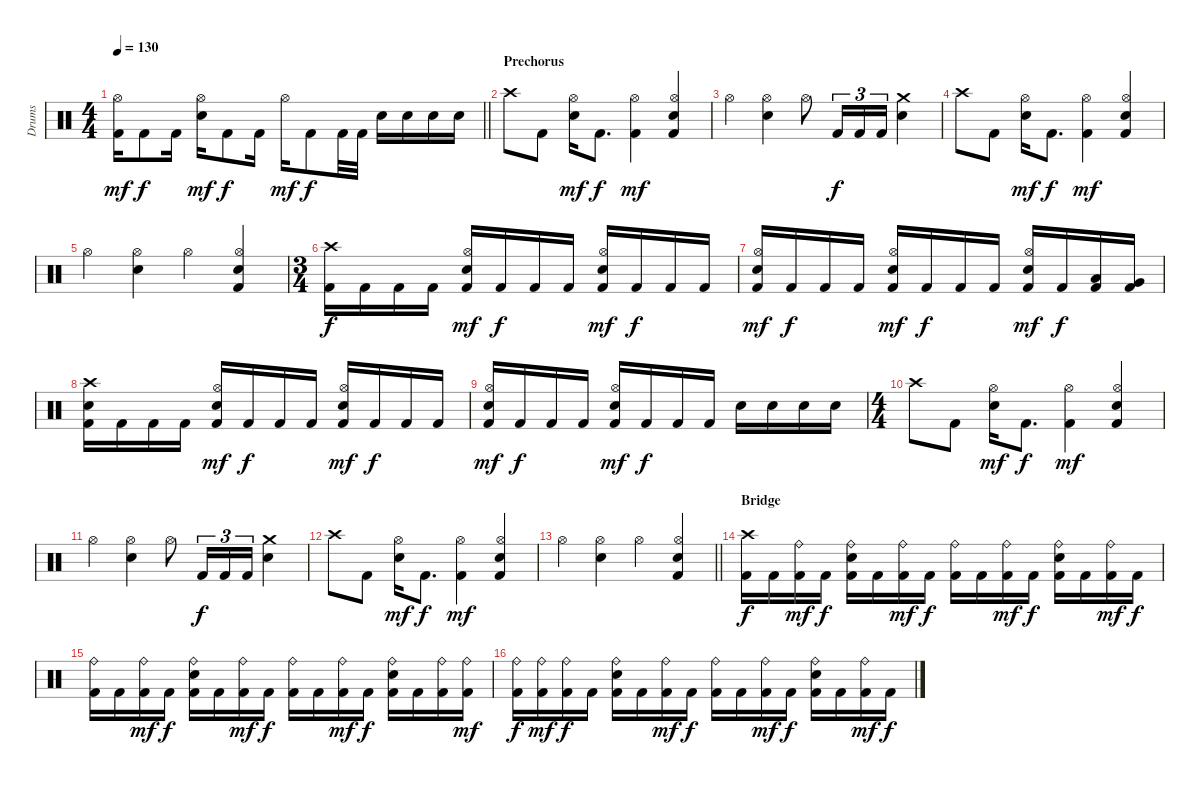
\track ("Drums" "Drums") {instrument percussion}
\staff {score}
\articulation defaults
\ts (4 4)
\tempo 130
\clef neutral
\barLineRight lightlight
\ks c
("Kick (hit) 2" "Hi-Hat (open)").16{dy mf} "Kick (hit) 2".8{dy f} "Kick (hit) 2".16 ("Hi-Hat (open)" "Electric Snare (hit)").16{dy mf} "Kick (hit) 2".8{dy f} "Kick (hit) 2".16 "Hi-Hat (open)".16{dy mf} "Kick (hit) 2".8{dy f} "Kick (hit) 2".32 "Kick (hit) 2".32 "Electric Snare (hit)".16 "Electric Snare (hit)".16 "Electric Snare (hit)".16 "Electric Snare (hit)".16 |
\section ("" "Prechorus")
"Crash high (hit)".8 "Kick (hit) 2".8 ("Hi-Hat (open)" "Electric Snare (hit)").16{dy mf} "Kick (hit) 2".8{d dy f} ("Kick (hit) 2" "Hi-Hat (open)").4{dy mf} ("Kick (hit) 2" "Hi-Hat (open)" "Electric Snare (hit)").4 |
"Hi-Hat (open)".4 ("Hi-Hat (open)" "Electric Snare (hit)").4 "Hi-Hat (open)".8 "Kick (hit) 2".16{tu (3 2) dy f} "Kick (hit) 2".16{tu (3 2)} "Kick (hit) 2".16{tu (3 2)} ("Crash medium (hit)" "Electric Snare (hit)").4 |
"Crash high (hit)".8 "Kick (hit) 2".8 ("Hi-Hat (open)" "Electric Snare (hit)").16{dy mf} "Kick (hit) 2".8{d dy f} ("Kick (hit) 2" "Hi-Hat (open)").4{dy mf} ("Kick (hit) 2" "Hi-Hat (open)" "Electric Snare (hit)").4 |
"Hi-Hat (open)".4 ("Hi-Hat (open)" "Electric Snare (hit)").4 "Hi-Hat (open)".4 ("Kick (hit) 2" "Hi-Hat (open)" "Electric Snare (hit)").4 |
\ts (3 4)
("Kick (hit) 2" "Crash high (hit)").16{dy f} "Kick (hit) 2".16 "Kick (hit) 2".16 "Kick (hit) 2".16 ("Kick (hit) 2" "Hi-Hat (open)" "Electric Snare (hit)").16{dy mf} "Kick (hit) 2".16{dy f} "Kick (hit) 2".16 "Kick (hit) 2".16 ("Kick (hit) 2" "Hi-Hat (open)" "Electric Snare (hit)").16{dy mf} "Kick (hit) 2".16{dy f} "Kick (hit) 2".16 "Kick (hit) 2".16 |
("Kick (hit) 2" "Hi-Hat (open)" "Electric Snare (hit)").16{dy mf} "Kick (hit) 2".16{dy f} "Kick (hit) 2".16 "Kick (hit) 2".16 ("Kick (hit) 2" "Hi-Hat (open)" "Electric Snare (hit)").16{dy mf} "Kick (hit) 2".16{dy f} "Kick (hit) 2".16 "Kick (hit) 2".16 ("Kick (hit) 2" "Hi-Hat (open)" "Electric Snare (hit)").16{dy mf} "Kick (hit) 2".16{dy f} ("Kick (hit) 2" "Low Tom (hit)").16 ("Kick (hit) 2" "Very Low Tom (hit)").16 |
("Kick (hit) 2" "Crash high (hit)" "Electric Snare (hit)").16 "Kick (hit) 2".16 "Kick (hit) 2".16 "Kick (hit) 2".16 ("Kick (hit) 2" "Hi-Hat (open)" "Electric Snare (hit)").16{dy mf} "Kick (hit) 2".16{dy f} "Kick (hit) 2".16 "Kick (hit) 2".16 ("Kick (hit) 2" "Hi-Hat (open)" "Electric Snare (hit)").16{dy mf} "Kick (hit) 2".16{dy f} "Kick (hit) 2".16 "Kick (hit) 2".16 |
("Kick (hit) 2" "Hi-Hat (open)" "Electric Snare (hit)").16{dy mf} "Kick (hit) 2".16{dy f} "Kick (hit) 2".16 "Kick (hit) 2".16 ("Kick (hit) 2" "Hi-Hat (open)" "Electric Snare (hit)").16{dy mf} "Kick (hit) 2".16{dy f} "Kick (hit) 2".16 "Kick (hit) 2".16 "Electric Snare (hit)".16 "Electric Snare (hit)".16 "Electric Snare (hit)".16 "Electric Snare (hit)".16 |
\ts (4 4)
"Crash high (hit)".8 "Kick (hit) 2".8 ("Hi-Hat (open)" "Electric Snare (hit)").16{dy mf} "Kick (hit) 2".8{d dy f} ("Kick (hit) 2" "Hi-Hat (open)").4{dy mf} ("Kick (hit) 2" "Hi-Hat (open)" "Electric Snare (hit)").4 |
"Hi-Hat (open)".4 ("Hi-Hat (open)" "Electric Snare (hit)").4 "Hi-Hat (open)".8 "Kick (hit) 2".16{tu (3 2) dy f} "Kick (hit) 2".16{tu (3 2)} "Kick (hit) 2".16{tu (3 2)} ("Crash medium (hit)" "Electric Snare (hit)").4 |
"Crash high (hit)".8 "Kick (hit) 2".8 ("Hi-Hat (open)" "Electric Snare (hit)").16{dy mf} "Kick (hit) 2".8{d dy f} ("Kick (hit) 2" "Hi-Hat (open)").4{dy mf} ("Kick (hit) 2" "Hi-Hat (open)" "Electric Snare (hit)").4 |
\barLineRight lightlight "Hi-Hat (open)".4
("Hi-Hat (open)" "Electric Snare (hit)").4 "Hi-Hat (open)".4 ("Kick (hit) 2" "Hi-Hat (open)" "Electric Snare (hit)").4 |
\section ("" "Bridge")
("Kick (hit) 2" "Crash high (hit)").16{dy f} "Kick (hit) 2".16 ("Kick (hit) 2" "Ride (bell)").16{dy mf} "Kick (hit) 2".16{dy f} ("Kick (hit) 2" "Ride (bell)" "Electric Snare (hit)").16 "Kick (hit) 2".16 ("Kick (hit) 2" "Ride (bell)").16{dy mf} "Kick (hit) 2".16{dy f} ("Kick (hit) 2" "Ride (bell)").16 "Kick (hit) 2".16 ("Kick (hit) 2" "Ride (bell)").16{dy mf} "Kick (hit) 2".16{dy f} ("Kick (hit) 2" "Ride (bell)" "Electric Snare (hit)").16 "Kick (hit) 2".16 ("Kick (hit) 2" "Ride (bell)").16{dy mf} "Kick (hit) 2".16{dy f} |
("Kick (hit) 2" "Ride (bell)").16 "Kick (hit) 2".16 ("Kick (hit) 2" "Ride (bell)").16{dy mf} "Kick (hit) 2".16{dy f} ("Kick (hit) 2" "Ride (bell)" "Electric Snare (hit)").16 "Kick (hit) 2".16 ("Kick (hit) 2" "Ride (bell)").16{dy mf} "Kick (hit) 2".16{dy f} ("Kick (hit) 2" "Ride (bell)").16 "Kick (hit) 2".16 ("Kick (hit) 2" "Ride (bell)").16{dy mf} "Kick (hit) 2".16{dy f} ("Kick (hit) 2" "Ride (bell)" "Electric Snare (hit)").16 "Kick (hit) 2".16 ("Kick (hit) 2" "Ride (bell)").16 ("Kick (hit) 2" "Ride (bell)").16{dy mf} |
("Kick (hit) 2" "Ride (bell)").16{dy f} ("Kick (hit) 2" "Ride (bell)").16{dy mf} ("Kick (hit) 2" "Ride (bell)").16{dy f} "Kick (hit) 2".16 ("Kick (hit) 2" "Ride (bell)" "Electric Snare (hit)").16 "Kick (hit) 2".16 ("Kick (hit) 2" "Ride (bell)").16{dy mf} "Kick (hit) 2".16{dy f} ("Kick (hit) 2" "Ride (bell)").16 "Kick (hit) 2".16 ("Kick (hit) 2" "Ride (bell)").16{dy mf} "Kick (hit) 2".16{dy f} ("Kick (hit) 2" "Ride (bell)" "Electric Snare (hit)").16 "Kick (hit) 2".16 ("Kick (hit) 2" "Ride (bell)").16{dy mf} "Kick (hit) 2".16{dy f}
